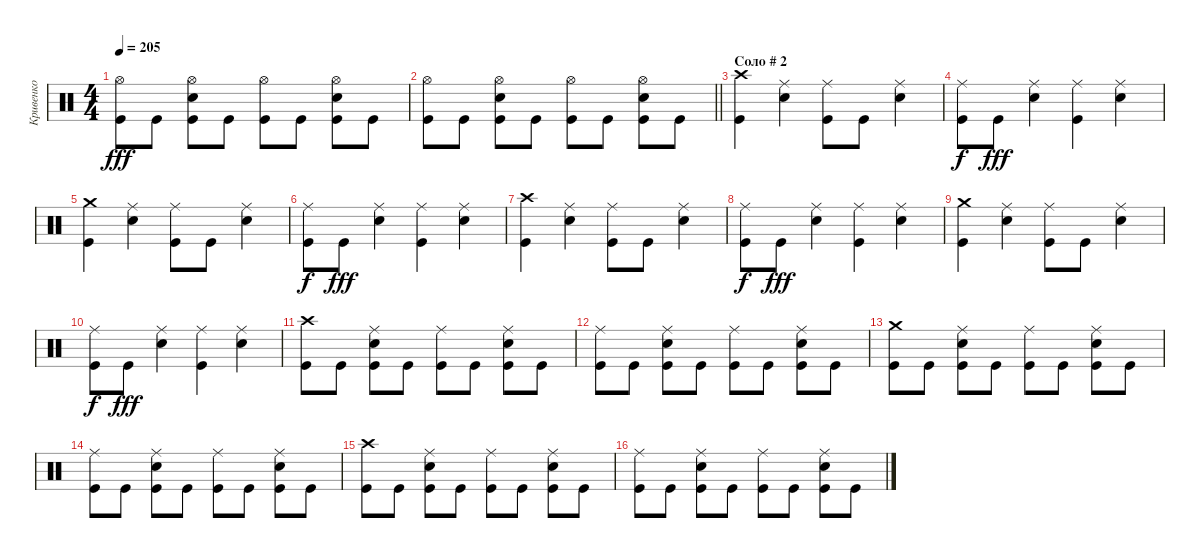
\track ("Кривенко" "Кривенко") {instrument percussion}
\staff {score}
\articulation defaults
\ts (4 4)
\tempo 205
\clef neutral
\ks c
("Hi-Hat (open)" "Kick (hit)").8{dy fff} "Kick (hit)".8 ("Hi-Hat (open)" "Electric Snare (hit)" "Kick (hit)").8 "Kick (hit)".8 ("Hi-Hat (open)" "Kick (hit)").8 "Kick (hit)".8 ("Hi-Hat (open)" "Electric Snare (hit)" "Kick (hit)").8 "Kick (hit)".8 |
\barLineRight lightlight
("Hi-Hat (open)" "Kick (hit)").8 "Kick (hit)".8 ("Hi-Hat (open)" "Electric Snare (hit)" "Kick (hit)").8 "Kick (hit)".8 ("Hi-Hat (open)" "Kick (hit)").8 "Kick (hit)".8 ("Hi-Hat (open)" "Electric Snare (hit)" "Kick (hit)").8 "Kick (hit)".8 |
\section ("" "Соло # 2")
("Crash high (hit)" "Kick (hit)").4 ("Ride (middle)" "Electric Snare (hit)").4 ("Ride (middle)" "Kick (hit)").8 "Kick (hit)".8 ("Ride (middle)" "Electric Snare (hit)").4 |
("Ride (middle)" "Kick (hit)").8{dy f} "Kick (hit)".8{dy fff} ("Ride (middle)" "Electric Snare (hit)").4 ("Ride (middle)" "Kick (hit)").4 ("Ride (middle)" "Electric Snare (hit)").4 |
("Crash medium (hit)" "Kick (hit)").4 ("Ride (middle)" "Electric Snare (hit)").4 ("Ride (middle)" "Kick (hit)").8 "Kick (hit)".8 ("Ride (middle)" "Electric Snare (hit)").4 |
("Ride (middle)" "Kick (hit)").8{dy f} "Kick (hit)".8{dy fff} ("Ride (middle)" "Electric Snare (hit)").4 ("Ride (middle)" "Kick (hit)").4 ("Ride (middle)" "Electric Snare (hit)").4 |
("Crash high (hit)" "Kick (hit)").4 ("Ride (middle)" "Electric Snare (hit)").4 ("Ride (middle)" "Kick (hit)").8 "Kick (hit)".8 ("Ride (middle)" "Electric Snare (hit)").4 |
("Ride (middle)" "Kick (hit)").8{dy f} "Kick (hit)".8{dy fff} ("Ride (middle)" "Electric Snare (hit)").4 ("Ride (middle)" "Kick (hit)").4 ("Ride (middle)" "Electric Snare (hit)").4 |
("Crash medium (hit)" "Kick (hit)").4 ("Ride (middle)" "Electric Snare (hit)").4 ("Ride (middle)" "Kick (hit)").8 "Kick (hit)".8 ("Ride (middle)" "Electric Snare (hit)").4 |
("Ride (middle)" "Kick (hit)").8{dy f} "Kick (hit)".8{dy fff} ("Ride (middle)" "Electric Snare (hit)").4 ("Ride (middle)" "Kick (hit)").4 ("Ride (middle)" "Electric Snare (hit)").4 |
("Crash high (hit)" "Kick (hit)").8 "Kick (hit)".8 ("Ride (middle)" "Electric Snare (hit)" "Kick (hit)").8 "Kick (hit)".8 ("Ride (middle)" "Kick (hit)").8 "Kick (hit)".8 ("Ride (middle)" "Electric Snare (hit)" "Kick (hit)").8 "Kick (hit)".8 |
("Ride (middle)" "Kick (hit)").8 "Kick (hit)".8 ("Ride (middle)" "Electric Snare (hit)" "Kick (hit)").8 "Kick (hit)".8 ("Ride (middle)" "Kick (hit)").8 "Kick (hit)".8 ("Ride (middle)" "Electric Snare (hit)" "Kick (hit)").8 "Kick (hit)".8 |
("Crash medium (hit)" "Kick (hit)").8 "Kick (hit)".8 ("Ride (middle)" "Electric Snare (hit)" "Kick (hit)").8 "Kick (hit)".8 ("Ride (middle)" "Kick (hit)").8 "Kick (hit)".8 ("Ride (middle)" "Electric Snare (hit)" "Kick (hit)").8 "Kick (hit)".8 |
("Ride (middle)" "Kick (hit)").8 "Kick (hit)".8 ("Ride (middle)" "Electric Snare (hit)" "Kick (hit)").8 "Kick (hit)".8 ("Ride (middle)" "Kick (hit)").8 "Kick (hit)".8 ("Ride (middle)" "Electric Snare (hit)" "Kick (hit)").8 "Kick (hit)".8 |
("Crash high (hit)" "Kick (hit)").8 "Kick (hit)".8 ("Ride (middle)" "Electric Snare (hit)" "Kick (hit)").8 "Kick (hit)".8 ("Ride (middle)" "Kick (hit)").8 "Kick (hit)".8 ("Ride (middle)" "Electric Snare (hit)" "Kick (hit)").8 "Kick (hit)".8 |
("Ride (middle)" "Kick (hit)").8 "Kick (hit)".8 ("Ride (middle)" "Electric Snare (hit)" "Kick (hit)").8 "Kick (hit)".8 ("Ride (middle)" "Kick (hit)").8 "Kick (hit)".8 ("Ride (middle)" "Electric Snare (hit)" "Kick (hit)").8 "Kick (hit)".8
